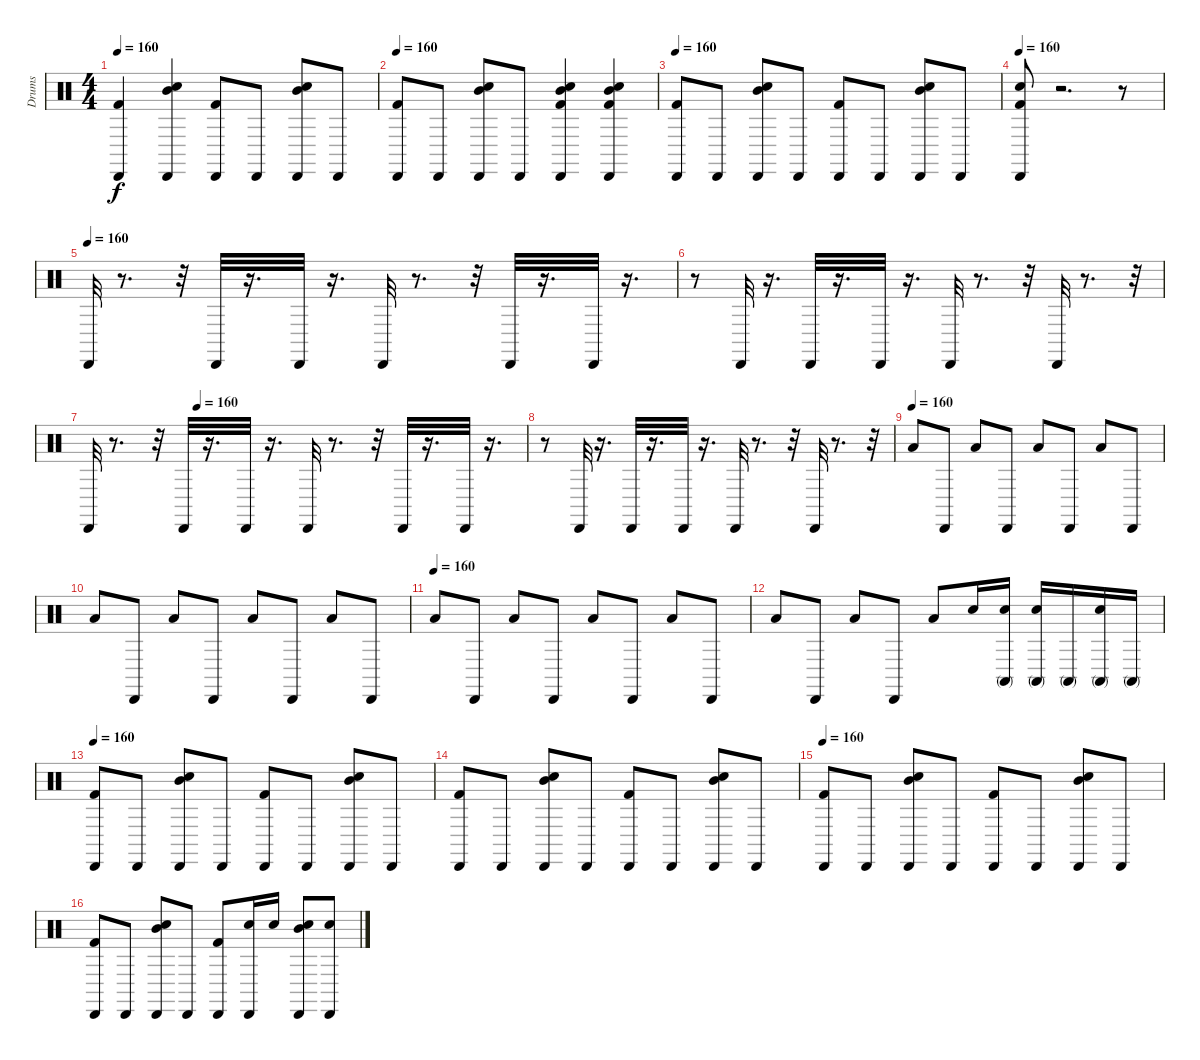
\track ("Drums" "Drums") {instrument percussion}
\staff {score}
\articulation defaults
\ts (4 4)
\tempo 160
\clef neutral
\ks c
("Cabasa (hit)" "Kick (hit) 2").4{dy f} ("Electric Snare (hit)" "Cabasa (hit)" "Mid Tom (hit)").4 ("Cabasa (hit)" "Kick (hit) 2").8 "Cabasa (hit)".8 ("Mid Tom (hit)" "Electric Snare (hit)" "Cabasa (hit)").8 "Cabasa (hit)".8 |
\tempo 160
("Kick (hit) 2" "Cabasa (hit)").8 "Cabasa (hit)".8 ("Electric Snare (hit)" "Mid Tom (hit)" "Cabasa (hit)").8 "Cabasa (hit)".8 ("Mid Tom (hit)" "Electric Snare (hit)" "Cabasa (hit)" "Kick (hit) 2").4 ("Kick (hit) 2" "Cabasa (hit)" "Electric Snare (hit)" "Mid Tom (hit)").4 |
\tempo 160
("Cabasa (hit)" "Kick (hit) 2").8 "Cabasa (hit)".8 ("Electric Snare (hit)" "Cabasa (hit)" "Mid Tom (hit)").8 "Cabasa (hit)".8 ("Cabasa (hit)" "Kick (hit) 2").8 "Cabasa (hit)".8 ("Mid Tom (hit)" "Electric Snare (hit)" "Cabasa (hit)").8 "Cabasa (hit)".8 |
\tempo 160
("Kick (hit) 2" "Electric Snare (hit)" "Cabasa (hit)").8 r.2{d} r.8 |
\tempo (160)
"Cabasa (hit)".32 r.8{d} r.32 "Cabasa (hit)".32 r.16{d} "Cabasa (hit)".32 r.16{d} "Cabasa (hit)".32 r.8{d} r.32 "Cabasa (hit)".32 r.16{d} "Cabasa (hit)".32 r.16{d} |
r.8 "Cabasa (hit)".32 r.16{d} "Cabasa (hit)".32 r.16{d} "Cabasa (hit)".32 r.16{d} "Cabasa (hit)".32 r.8{d} r.32 "Cabasa (hit)".32 r.8{d} r.32 |
\tempo (160 0.25)
"Cabasa (hit)".32 r.8{d} r.32 "Cabasa (hit)".32 r.16{d} "Cabasa (hit)".32 r.16{d} "Cabasa (hit)".32 r.8{d} r.32 "Cabasa (hit)".32 r.16{d} "Cabasa (hit)".32 r.16{d} |
r.8 "Cabasa (hit)".32 r.16{d} "Cabasa (hit)".32 r.16{d} "Cabasa (hit)".32 r.16{d} "Cabasa (hit)".32 r.8{d} r.32 "Cabasa (hit)".32 r.8{d} r.32 |
\tempo (160)
"Low Floor Tom (hit)".8 "Cabasa (hit)".8 "Low Floor Tom (hit)".8 "Cabasa (hit)".8 "Low Floor Tom (hit)".8 "Cabasa (hit)".8 "Low Floor Tom (hit)".8 "Cabasa (hit)".8 |
"Low Floor Tom (hit)".8 "Cabasa (hit)".8 "Low Floor Tom (hit)".8 "Cabasa (hit)".8 "Low Floor Tom (hit)".8 "Cabasa (hit)".8 "Low Floor Tom (hit)".8 "Cabasa (hit)".8 |
\tempo (160)
"Low Floor Tom (hit)".8 "Cabasa (hit)".8 "Low Floor Tom (hit)".8 "Cabasa (hit)".8 "Low Floor Tom (hit)".8 "Cabasa (hit)".8 "Low Floor Tom (hit)".8 "Cabasa (hit)".8 |
"Low Floor Tom (hit)".8 "Cabasa (hit)".8 "Low Floor Tom (hit)".8 "Cabasa (hit)".8 "Low Floor Tom (hit)".8 "Electric Snare (hit)".16 ("Electric Snare (hit)" "Conga high (mute)").16 ("Electric Snare (hit)" "Conga high (mute)").16 "Conga high (mute)".16 ("Electric Snare (hit)" "Conga high (mute)").16 "Conga high (mute)".16 |
\tempo 160
("Kick (hit) 2" "Cabasa (hit)").8 "Cabasa (hit)".8 ("Electric Snare (hit)" "Mid Tom (hit)" "Cabasa (hit)").8 "Cabasa (hit)".8 ("Cabasa (hit)" "Kick (hit) 2").8 "Cabasa (hit)".8 ("Cabasa (hit)" "Electric Snare (hit)" "Mid Tom (hit)").8 "Cabasa (hit)".8 |
("Cabasa (hit)" "Kick (hit) 2").8 "Cabasa (hit)".8 ("Electric Snare (hit)" "Cabasa (hit)" "Mid Tom (hit)").8 "Cabasa (hit)".8 ("Cabasa (hit)" "Kick (hit) 2").8 "Cabasa (hit)".8 ("Mid Tom (hit)" "Electric Snare (hit)" "Cabasa (hit)").8 "Cabasa (hit)".8 |
\tempo 160
("Kick (hit) 2" "Cabasa (hit)").8 "Cabasa (hit)".8 ("Electric Snare (hit)" "Mid Tom (hit)" "Cabasa (hit)").8 "Cabasa (hit)".8 ("Cabasa (hit)" "Kick (hit) 2").8 "Cabasa (hit)".8 ("Cabasa (hit)" "Electric Snare (hit)" "Mid Tom (hit)").8 "Cabasa (hit)".8 |
("Cabasa (hit)" "Kick (hit) 2").8 "Cabasa (hit)".8 ("Electric Snare (hit)" "Cabasa (hit)" "Mid Tom (hit)").8 "Cabasa (hit)".8 ("Cabasa (hit)" "Kick (hit) 2").8 ("Electric Snare (hit)" "Cabasa (hit)").16 "Electric Snare (hit)".16 ("Electric Snare (hit)" "Mid Tom (hit)" "Cabasa (hit)").8 ("Electric Snare (hit)" "Cabasa (hit)").8
